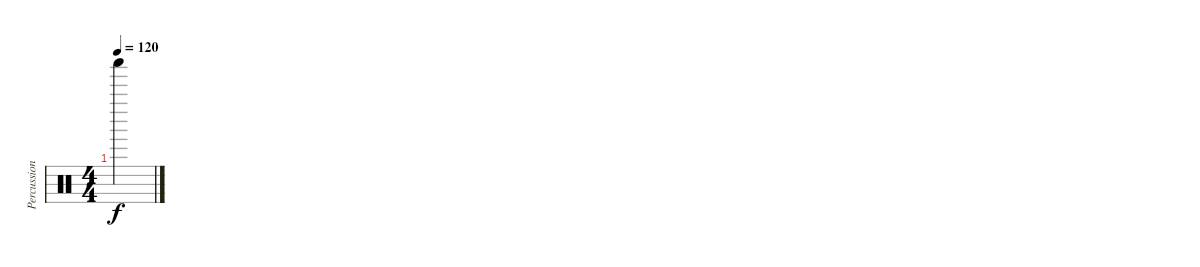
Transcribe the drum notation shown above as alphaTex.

\track ("Percussion" "Percussion") {instrument percussion}
\staff {score}
\articulation defaults
\ts (4 4)
\tempo 120
\clef neutral
\ks c "Shaker (hit)".4{dy f}
